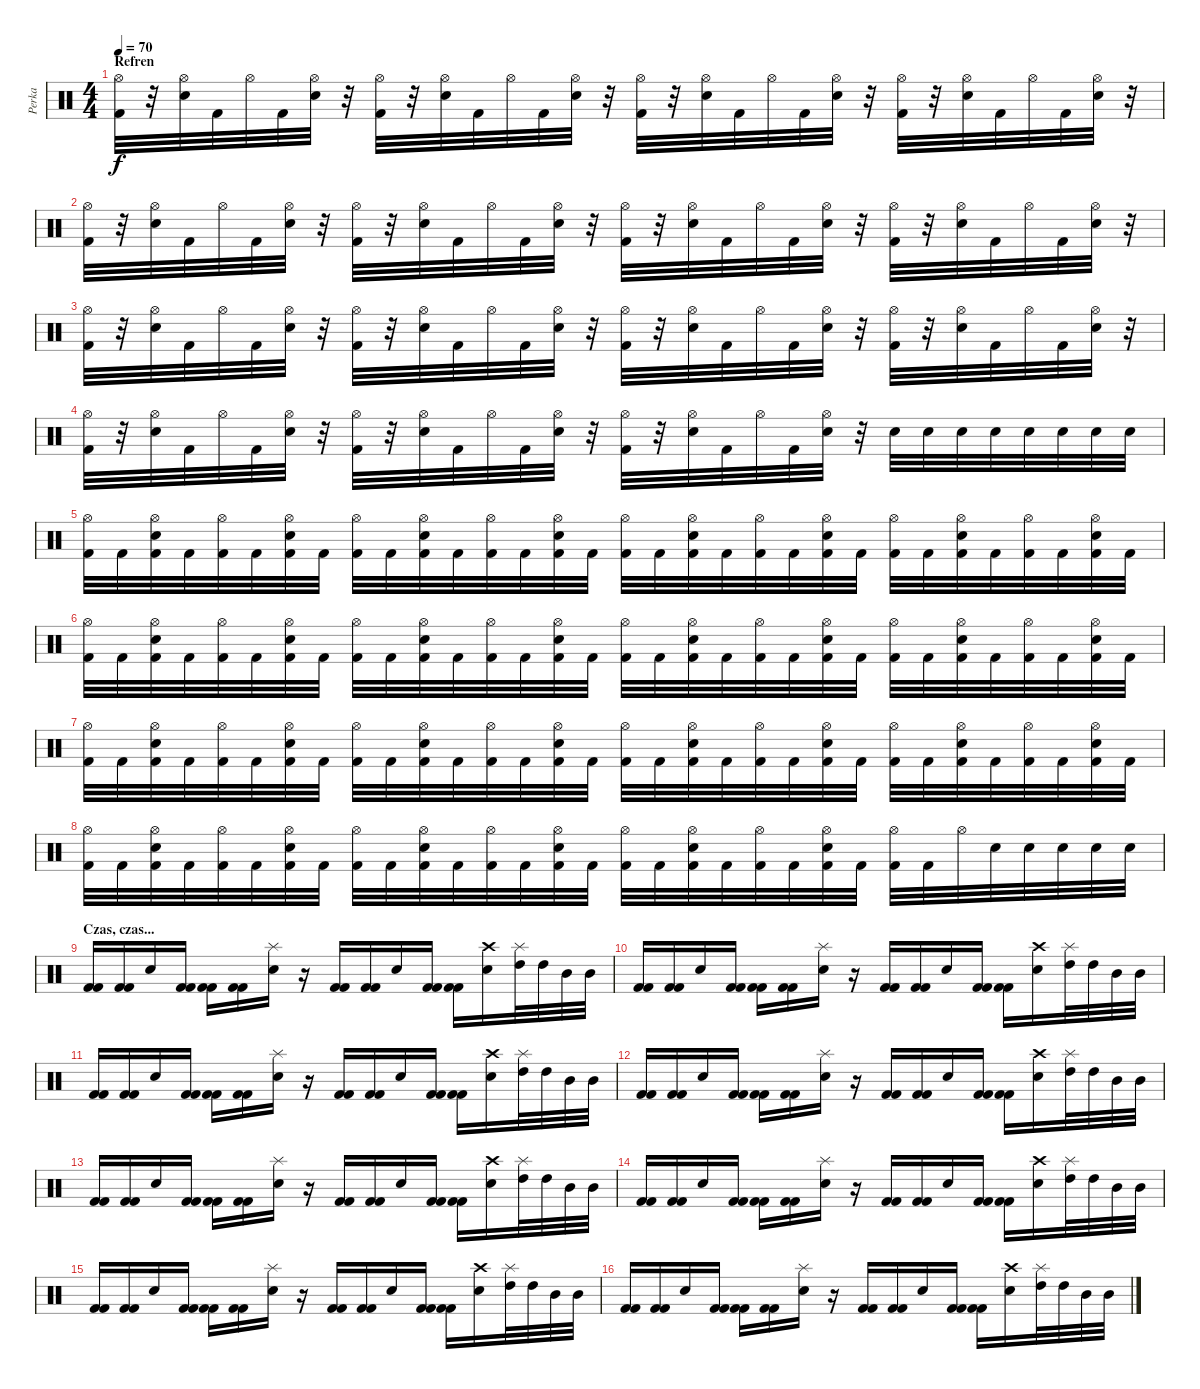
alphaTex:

\track ("Perka" "Perka") {instrument percussion}
\staff {score}
\articulation defaults
\ts (4 4)
\section ("" "Refren")
\tempo 70
\clef neutral
\ks c
("Hi-Hat (open)" "Kick (hit) 2").32{dy f} r.32 ("Hi-Hat (open)" "Electric Snare (hit)").32 "Kick (hit) 2".32 "Hi-Hat (open)".32 "Kick (hit) 2".32 ("Hi-Hat (open)" "Electric Snare (hit)").32 r.32 ("Hi-Hat (open)" "Kick (hit) 2").32 r.32 ("Hi-Hat (open)" "Electric Snare (hit)").32 "Kick (hit) 2".32 "Hi-Hat (open)".32 "Kick (hit) 2".32 ("Hi-Hat (open)" "Electric Snare (hit)").32 r.32 ("Hi-Hat (open)" "Kick (hit) 2").32 r.32 ("Hi-Hat (open)" "Electric Snare (hit)").32 "Kick (hit) 2".32 "Hi-Hat (open)".32 "Kick (hit) 2".32 ("Hi-Hat (open)" "Electric Snare (hit)").32 r.32 ("Hi-Hat (open)" "Kick (hit) 2").32 r.32 ("Hi-Hat (open)" "Electric Snare (hit)").32 "Kick (hit) 2".32 "Hi-Hat (open)".32 "Kick (hit) 2".32 ("Hi-Hat (open)" "Electric Snare (hit)").32 r.32 |
("Hi-Hat (open)" "Kick (hit) 2").32 r.32 ("Hi-Hat (open)" "Electric Snare (hit)").32 "Kick (hit) 2".32 "Hi-Hat (open)".32 "Kick (hit) 2".32 ("Hi-Hat (open)" "Electric Snare (hit)").32 r.32 ("Hi-Hat (open)" "Kick (hit) 2").32 r.32 ("Hi-Hat (open)" "Electric Snare (hit)").32 "Kick (hit) 2".32 "Hi-Hat (open)".32 "Kick (hit) 2".32 ("Hi-Hat (open)" "Electric Snare (hit)").32 r.32 ("Hi-Hat (open)" "Kick (hit) 2").32 r.32 ("Hi-Hat (open)" "Electric Snare (hit)").32 "Kick (hit) 2".32 "Hi-Hat (open)".32 "Kick (hit) 2".32 ("Hi-Hat (open)" "Electric Snare (hit)").32 r.32 ("Hi-Hat (open)" "Kick (hit) 2").32 r.32 ("Hi-Hat (open)" "Electric Snare (hit)").32 "Kick (hit) 2".32 "Hi-Hat (open)".32 "Kick (hit) 2".32 ("Hi-Hat (open)" "Electric Snare (hit)").32 r.32 |
("Hi-Hat (open)" "Kick (hit) 2").32 r.32 ("Hi-Hat (open)" "Electric Snare (hit)").32 "Kick (hit) 2".32 "Hi-Hat (open)".32 "Kick (hit) 2".32 ("Hi-Hat (open)" "Electric Snare (hit)").32 r.32 ("Hi-Hat (open)" "Kick (hit) 2").32 r.32 ("Hi-Hat (open)" "Electric Snare (hit)").32 "Kick (hit) 2".32 "Hi-Hat (open)".32 "Kick (hit) 2".32 ("Hi-Hat (open)" "Electric Snare (hit)").32 r.32 ("Hi-Hat (open)" "Kick (hit) 2").32 r.32 ("Hi-Hat (open)" "Electric Snare (hit)").32 "Kick (hit) 2".32 "Hi-Hat (open)".32 "Kick (hit) 2".32 ("Hi-Hat (open)" "Electric Snare (hit)").32 r.32 ("Hi-Hat (open)" "Kick (hit) 2").32 r.32 ("Hi-Hat (open)" "Electric Snare (hit)").32 "Kick (hit) 2".32 "Hi-Hat (open)".32 "Kick (hit) 2".32 ("Hi-Hat (open)" "Electric Snare (hit)").32 r.32 |
("Hi-Hat (open)" "Kick (hit) 2").32 r.32 ("Hi-Hat (open)" "Electric Snare (hit)").32 "Kick (hit) 2".32 "Hi-Hat (open)".32 "Kick (hit) 2".32 ("Hi-Hat (open)" "Electric Snare (hit)").32 r.32 ("Hi-Hat (open)" "Kick (hit) 2").32 r.32 ("Hi-Hat (open)" "Electric Snare (hit)").32 "Kick (hit) 2".32 "Hi-Hat (open)".32 "Kick (hit) 2".32 ("Hi-Hat (open)" "Electric Snare (hit)").32 r.32 ("Hi-Hat (open)" "Kick (hit) 2").32 r.32 ("Hi-Hat (open)" "Electric Snare (hit)").32 "Kick (hit) 2".32 "Hi-Hat (open)".32 "Kick (hit) 2".32 ("Hi-Hat (open)" "Electric Snare (hit)").32 r.32 "Electric Snare (hit)".32 "Electric Snare (hit)".32 "Electric Snare (hit)".32 "Electric Snare (hit)".32 "Electric Snare (hit)".32 "Electric Snare (hit)".32 "Electric Snare (hit)".32 "Electric Snare (hit)".32 |
("Hi-Hat (open)" "Kick (hit) 2").32 "Kick (hit) 2".32 ("Hi-Hat (open)" "Electric Snare (hit)" "Kick (hit) 2").32 "Kick (hit) 2".32 ("Hi-Hat (open)" "Kick (hit) 2").32 "Kick (hit) 2".32 ("Hi-Hat (open)" "Electric Snare (hit)" "Kick (hit) 2").32 "Kick (hit) 2".32 ("Hi-Hat (open)" "Kick (hit) 2").32 "Kick (hit) 2".32 ("Hi-Hat (open)" "Electric Snare (hit)" "Kick (hit) 2").32 "Kick (hit) 2".32 ("Hi-Hat (open)" "Kick (hit) 2").32 "Kick (hit) 2".32 ("Hi-Hat (open)" "Electric Snare (hit)" "Kick (hit) 2").32 "Kick (hit) 2".32 ("Hi-Hat (open)" "Kick (hit) 2").32 "Kick (hit) 2".32 ("Hi-Hat (open)" "Electric Snare (hit)" "Kick (hit) 2").32 "Kick (hit) 2".32 ("Hi-Hat (open)" "Kick (hit) 2").32 "Kick (hit) 2".32 ("Hi-Hat (open)" "Electric Snare (hit)" "Kick (hit) 2").32 "Kick (hit) 2".32 ("Hi-Hat (open)" "Kick (hit) 2").32 "Kick (hit) 2".32 ("Hi-Hat (open)" "Electric Snare (hit)" "Kick (hit) 2").32 "Kick (hit) 2".32 ("Hi-Hat (open)" "Kick (hit) 2").32 "Kick (hit) 2".32 ("Hi-Hat (open)" "Electric Snare (hit)" "Kick (hit) 2").32 "Kick (hit) 2".32 |
("Hi-Hat (open)" "Kick (hit) 2").32 "Kick (hit) 2".32 ("Hi-Hat (open)" "Electric Snare (hit)" "Kick (hit) 2").32 "Kick (hit) 2".32 ("Hi-Hat (open)" "Kick (hit) 2").32 "Kick (hit) 2".32 ("Hi-Hat (open)" "Electric Snare (hit)" "Kick (hit) 2").32 "Kick (hit) 2".32 ("Hi-Hat (open)" "Kick (hit) 2").32 "Kick (hit) 2".32 ("Hi-Hat (open)" "Electric Snare (hit)" "Kick (hit) 2").32 "Kick (hit) 2".32 ("Hi-Hat (open)" "Kick (hit) 2").32 "Kick (hit) 2".32 ("Hi-Hat (open)" "Electric Snare (hit)" "Kick (hit) 2").32 "Kick (hit) 2".32 ("Hi-Hat (open)" "Kick (hit) 2").32 "Kick (hit) 2".32 ("Hi-Hat (open)" "Electric Snare (hit)" "Kick (hit) 2").32 "Kick (hit) 2".32 ("Hi-Hat (open)" "Kick (hit) 2").32 "Kick (hit) 2".32 ("Hi-Hat (open)" "Electric Snare (hit)" "Kick (hit) 2").32 "Kick (hit) 2".32 ("Hi-Hat (open)" "Kick (hit) 2").32 "Kick (hit) 2".32 ("Hi-Hat (open)" "Electric Snare (hit)" "Kick (hit) 2").32 "Kick (hit) 2".32 ("Hi-Hat (open)" "Kick (hit) 2").32 "Kick (hit) 2".32 ("Hi-Hat (open)" "Electric Snare (hit)" "Kick (hit) 2").32 "Kick (hit) 2".32 |
("Hi-Hat (open)" "Kick (hit) 2").32 "Kick (hit) 2".32 ("Hi-Hat (open)" "Electric Snare (hit)" "Kick (hit) 2").32 "Kick (hit) 2".32 ("Hi-Hat (open)" "Kick (hit) 2").32 "Kick (hit) 2".32 ("Hi-Hat (open)" "Electric Snare (hit)" "Kick (hit) 2").32 "Kick (hit) 2".32 ("Hi-Hat (open)" "Kick (hit) 2").32 "Kick (hit) 2".32 ("Hi-Hat (open)" "Electric Snare (hit)" "Kick (hit) 2").32 "Kick (hit) 2".32 ("Hi-Hat (open)" "Kick (hit) 2").32 "Kick (hit) 2".32 ("Hi-Hat (open)" "Electric Snare (hit)" "Kick (hit) 2").32 "Kick (hit) 2".32 ("Hi-Hat (open)" "Kick (hit) 2").32 "Kick (hit) 2".32 ("Hi-Hat (open)" "Electric Snare (hit)" "Kick (hit) 2").32 "Kick (hit) 2".32 ("Hi-Hat (open)" "Kick (hit) 2").32 "Kick (hit) 2".32 ("Hi-Hat (open)" "Electric Snare (hit)" "Kick (hit) 2").32 "Kick (hit) 2".32 ("Hi-Hat (open)" "Kick (hit) 2").32 "Kick (hit) 2".32 ("Hi-Hat (open)" "Electric Snare (hit)" "Kick (hit) 2").32 "Kick (hit) 2".32 ("Hi-Hat (open)" "Kick (hit) 2").32 "Kick (hit) 2".32 ("Hi-Hat (open)" "Electric Snare (hit)" "Kick (hit) 2").32 "Kick (hit) 2".32 |
("Hi-Hat (open)" "Kick (hit) 2").32 "Kick (hit) 2".32 ("Hi-Hat (open)" "Electric Snare (hit)" "Kick (hit) 2").32 "Kick (hit) 2".32 ("Hi-Hat (open)" "Kick (hit) 2").32 "Kick (hit) 2".32 ("Hi-Hat (open)" "Electric Snare (hit)" "Kick (hit) 2").32 "Kick (hit) 2".32 ("Hi-Hat (open)" "Kick (hit) 2").32 "Kick (hit) 2".32 ("Hi-Hat (open)" "Electric Snare (hit)" "Kick (hit) 2").32 "Kick (hit) 2".32 ("Hi-Hat (open)" "Kick (hit) 2").32 "Kick (hit) 2".32 ("Hi-Hat (open)" "Electric Snare (hit)" "Kick (hit) 2").32 "Kick (hit) 2".32 ("Hi-Hat (open)" "Kick (hit) 2").32 "Kick (hit) 2".32 ("Hi-Hat (open)" "Electric Snare (hit)" "Kick (hit) 2").32 "Kick (hit) 2".32 ("Hi-Hat (open)" "Kick (hit) 2").32 "Kick (hit) 2".32 ("Hi-Hat (open)" "Electric Snare (hit)" "Kick (hit) 2").32 "Kick (hit) 2".32 ("Hi-Hat (open)" "Kick (hit) 2").32 "Kick (hit) 2".32 "Hi-Hat (open)".32 "Electric Snare (hit)".32 "Electric Snare (hit)".32 "Electric Snare (hit)".32 "Electric Snare (hit)".32 "Electric Snare (hit)".32 |
\section ("" "Czas, czas...")
("Kick (hit) 2" "Kick (hit) 2").16 ("Kick (hit) 2" "Kick (hit) 2").16 "Electric Snare (hit)".16 ("Kick (hit) 2" "Kick (hit) 2").16 ("Kick (hit) 2" "Kick (hit) 2").16 ("Kick (hit) 2" "Kick (hit) 2").16 ("Splash (hit)" "Electric Snare (hit)").16 r.16 ("Kick (hit) 2" "Kick (hit) 2").16 ("Kick (hit) 2" "Kick (hit) 2").16 "Electric Snare (hit)".16 ("Kick (hit) 2" "Kick (hit) 2").16 ("Kick (hit) 2" "Kick (hit) 2").16 ("Crash high (hit)" "Electric Snare (hit)").16 ("Splash (hit)" "High Tom (hit)").32 "High Tom (hit)".32 "Mid Tom (hit)".32 "Mid Tom (hit)".32 |
("Kick (hit) 2" "Kick (hit) 2").16 ("Kick (hit) 2" "Kick (hit) 2").16 "Electric Snare (hit)".16 ("Kick (hit) 2" "Kick (hit) 2").16 ("Kick (hit) 2" "Kick (hit) 2").16 ("Kick (hit) 2" "Kick (hit) 2").16 ("Splash (hit)" "Electric Snare (hit)").16 r.16 ("Kick (hit) 2" "Kick (hit) 2").16 ("Kick (hit) 2" "Kick (hit) 2").16 "Electric Snare (hit)".16 ("Kick (hit) 2" "Kick (hit) 2").16 ("Kick (hit) 2" "Kick (hit) 2").16 ("Crash high (hit)" "Electric Snare (hit)").16 ("Splash (hit)" "High Tom (hit)").32 "High Tom (hit)".32 "Mid Tom (hit)".32 "Mid Tom (hit)".32 |
("Kick (hit) 2" "Kick (hit) 2").16 ("Kick (hit) 2" "Kick (hit) 2").16 "Electric Snare (hit)".16 ("Kick (hit) 2" "Kick (hit) 2").16 ("Kick (hit) 2" "Kick (hit) 2").16 ("Kick (hit) 2" "Kick (hit) 2").16 ("Splash (hit)" "Electric Snare (hit)").16 r.16 ("Kick (hit) 2" "Kick (hit) 2").16 ("Kick (hit) 2" "Kick (hit) 2").16 "Electric Snare (hit)".16 ("Kick (hit) 2" "Kick (hit) 2").16 ("Kick (hit) 2" "Kick (hit) 2").16 ("Crash high (hit)" "Electric Snare (hit)").16 ("Splash (hit)" "High Tom (hit)").32 "High Tom (hit)".32 "Mid Tom (hit)".32 "Mid Tom (hit)".32 |
("Kick (hit) 2" "Kick (hit) 2").16 ("Kick (hit) 2" "Kick (hit) 2").16 "Electric Snare (hit)".16 ("Kick (hit) 2" "Kick (hit) 2").16 ("Kick (hit) 2" "Kick (hit) 2").16 ("Kick (hit) 2" "Kick (hit) 2").16 ("Splash (hit)" "Electric Snare (hit)").16 r.16 ("Kick (hit) 2" "Kick (hit) 2").16 ("Kick (hit) 2" "Kick (hit) 2").16 "Electric Snare (hit)".16 ("Kick (hit) 2" "Kick (hit) 2").16 ("Kick (hit) 2" "Kick (hit) 2").16 ("Crash high (hit)" "Electric Snare (hit)").16 ("Splash (hit)" "High Tom (hit)").32 "High Tom (hit)".32 "Mid Tom (hit)".32 "Mid Tom (hit)".32 |
("Kick (hit) 2" "Kick (hit) 2").16 ("Kick (hit) 2" "Kick (hit) 2").16 "Electric Snare (hit)".16 ("Kick (hit) 2" "Kick (hit) 2").16 ("Kick (hit) 2" "Kick (hit) 2").16 ("Kick (hit) 2" "Kick (hit) 2").16 ("Splash (hit)" "Electric Snare (hit)").16 r.16 ("Kick (hit) 2" "Kick (hit) 2").16 ("Kick (hit) 2" "Kick (hit) 2").16 "Electric Snare (hit)".16 ("Kick (hit) 2" "Kick (hit) 2").16 ("Kick (hit) 2" "Kick (hit) 2").16 ("Crash high (hit)" "Electric Snare (hit)").16 ("Splash (hit)" "High Tom (hit)").32 "High Tom (hit)".32 "Mid Tom (hit)".32 "Mid Tom (hit)".32 |
("Kick (hit) 2" "Kick (hit) 2").16 ("Kick (hit) 2" "Kick (hit) 2").16 "Electric Snare (hit)".16 ("Kick (hit) 2" "Kick (hit) 2").16 ("Kick (hit) 2" "Kick (hit) 2").16 ("Kick (hit) 2" "Kick (hit) 2").16 ("Splash (hit)" "Electric Snare (hit)").16 r.16 ("Kick (hit) 2" "Kick (hit) 2").16 ("Kick (hit) 2" "Kick (hit) 2").16 "Electric Snare (hit)".16 ("Kick (hit) 2" "Kick (hit) 2").16 ("Kick (hit) 2" "Kick (hit) 2").16 ("Crash high (hit)" "Electric Snare (hit)").16 ("Splash (hit)" "High Tom (hit)").32 "High Tom (hit)".32 "Mid Tom (hit)".32 "Mid Tom (hit)".32 |
("Kick (hit) 2" "Kick (hit) 2").16 ("Kick (hit) 2" "Kick (hit) 2").16 "Electric Snare (hit)".16 ("Kick (hit) 2" "Kick (hit) 2").16 ("Kick (hit) 2" "Kick (hit) 2").16 ("Kick (hit) 2" "Kick (hit) 2").16 ("Splash (hit)" "Electric Snare (hit)").16 r.16 ("Kick (hit) 2" "Kick (hit) 2").16 ("Kick (hit) 2" "Kick (hit) 2").16 "Electric Snare (hit)".16 ("Kick (hit) 2" "Kick (hit) 2").16 ("Kick (hit) 2" "Kick (hit) 2").16 ("Crash high (hit)" "Electric Snare (hit)").16 ("Splash (hit)" "High Tom (hit)").32 "High Tom (hit)".32 "Mid Tom (hit)".32 "Mid Tom (hit)".32 |
("Kick (hit) 2" "Kick (hit) 2").16 ("Kick (hit) 2" "Kick (hit) 2").16 "Electric Snare (hit)".16 ("Kick (hit) 2" "Kick (hit) 2").16 ("Kick (hit) 2" "Kick (hit) 2").16 ("Kick (hit) 2" "Kick (hit) 2").16 ("Splash (hit)" "Electric Snare (hit)").16 r.16 ("Kick (hit) 2" "Kick (hit) 2").16 ("Kick (hit) 2" "Kick (hit) 2").16 "Electric Snare (hit)".16 ("Kick (hit) 2" "Kick (hit) 2").16 ("Kick (hit) 2" "Kick (hit) 2").16 ("Crash high (hit)" "Electric Snare (hit)").16 ("Splash (hit)" "High Tom (hit)").32 "High Tom (hit)".32 "Mid Tom (hit)".32 "Mid Tom (hit)".32
